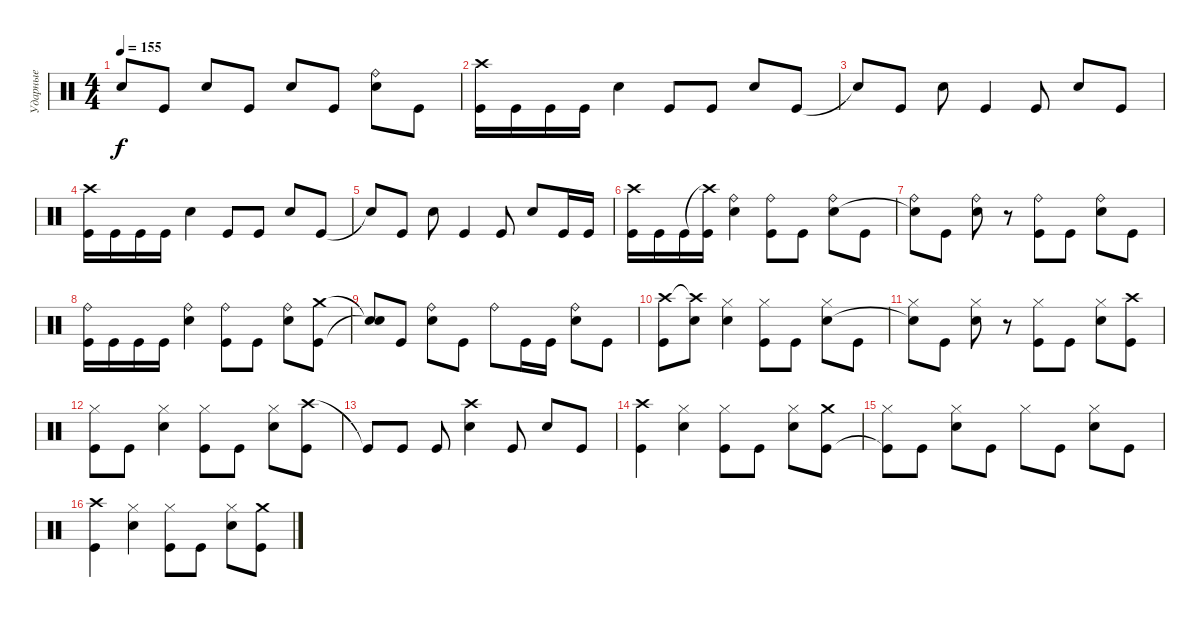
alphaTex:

\track ("Ударные" "Ударные") {instrument percussion}
\staff {score}
\articulation defaults
\ts (4 4)
\tempo 155
\clef neutral
\ks c "Snare (hit)"{t}.8{dy f} "Kick (hit)".8 "Electric Snare (hit)".8 "Kick (hit)".8 "Electric Snare (hit)".8 "Kick (hit)".8
("Ride (bell)" "Electric Snare (hit)").8 "Kick (hit)".8 |
("Crash high (hit)" "Kick (hit)").16 "Kick (hit)".16 "Kick (hit)".16 "Kick (hit)".16 "Electric Snare (hit)".4 "Kick (hit)".8 "Kick (hit)".8 "Electric Snare (hit)".8 "Kick (hit)".8 |
"Snare (hit)"{t}.8 "Kick (hit)".8 "Electric Snare (hit)".8 "Kick (hit)".4 "Kick (hit)".8 "Electric Snare (hit)".8 "Kick (hit)".8 |
("Crash high (hit)" "Kick (hit)").16 "Kick (hit)".16 "Kick (hit)".16 "Kick (hit)".16 "Electric Snare (hit)".4 "Kick (hit)".8 "Kick (hit)".8 "Electric Snare (hit)".8 "Kick (hit)".8 |
"Snare (hit)"{t}.8 "Kick (hit)".8 "Electric Snare (hit)".8 "Kick (hit)".4 "Kick (hit)".8 "Electric Snare (hit)".8 "Kick (hit)".16 "Kick (hit)".16 |
("Crash high (hit)" "Kick (hit)").16 "Kick (hit)".16 "Kick (hit)".16 ("Crash high (hit)"{t} "Kick (hit)").16 ("Ride (bell)" "Electric Snare (hit)").4 ("Ride (bell)" "Kick (hit)").8 "Kick (hit)".8 ("Ride (bell)" "Electric Snare (hit)").8 "Kick (hit)".8 |
("Ride (bell)" "Snare (hit)"{t}).8 "Kick (hit)".8 ("Ride (bell)" "Electric Snare (hit)").8 r.8 ("Ride (bell)" "Kick (hit)").8 "Kick (hit)".8 ("Ride (bell)" "Electric Snare (hit)").8 "Kick (hit)".8 |
("Ride (bell)" "Kick (hit)").16 "Kick (hit)".16 "Kick (hit)".16 "Kick (hit)".16 ("Ride (bell)" "Electric Snare (hit)").4 ("Ride (bell)" "Kick (hit)").8 "Kick (hit)".8 ("Ride (bell)" "Electric Snare (hit)").8 ("Crash medium (hit)" "Kick (hit)").8 |
("Snare (hit)"{t} "Snare (hit)"{t}).8 "Kick (hit)".8 ("Ride (bell)" "Electric Snare (hit)").8 "Kick (hit)".8 "Ride (bell)".8 "Kick (hit)".16 "Kick (hit)".16 ("Ride (bell)" "Electric Snare (hit)").8 "Kick (hit)".8 |
("Crash high (hit)" "Kick (hit)").8 ("Crash high (hit)"{t} "Snare (hit)").8 ("Hi-Hat (closed)" "Electric Snare (hit)").4 ("Hi-Hat (closed)" "Kick (hit)").8 "Kick (hit)".8 ("Hi-Hat (closed)" "Electric Snare (hit)").8 "Kick (hit)".8 |
("Hi-Hat (closed)" "Snare (hit)"{t}).8 "Kick (hit)".8 ("Hi-Hat (closed)" "Electric Snare (hit)").8 r.8 ("Hi-Hat (closed)" "Kick (hit)").8 "Kick (hit)".8 ("Hi-Hat (closed)" "Electric Snare (hit)").8 ("Crash high (hit)" "Kick (hit)").8 |
("Hi-Hat (closed)" "Kick (hit)").8 "Kick (hit)".8 ("Hi-Hat (closed)" "Electric Snare (hit)").4 ("Hi-Hat (closed)" "Kick (hit)").8 "Kick (hit)".8 ("Hi-Hat (closed)" "Electric Snare (hit)").8 ("Crash high (hit)" "Kick (hit)").8 |
"Kick (hit)"{t}.8 "Kick (hit)".8 "Kick (hit)".8 ("Crash high (hit)" "Electric Snare (hit)").4 "Kick (hit)".8 "Electric Snare (hit)".8 "Kick (hit)".8 |
("Crash high (hit)" "Kick (hit)").4 ("Hi-Hat (closed)" "Electric Snare (hit)").4 ("Hi-Hat (closed)" "Kick (hit)").8 "Kick (hit)".8 ("Hi-Hat (closed)" "Electric Snare (hit)").8 ("Crash medium (hit)" "Kick (hit)").8 |
("Hi-Hat (closed)" "Kick (hit)"{t}).8 "Kick (hit)".8 ("Hi-Hat (closed)" "Electric Snare (hit)").8 "Kick (hit)".8 "Hi-Hat (closed)".8 "Kick (hit)".8 ("Hi-Hat (closed)" "Electric Snare (hit)").8 "Kick (hit)".8 |
("Crash high (hit)" "Kick (hit)").4 ("Hi-Hat (closed)" "Electric Snare (hit)").4 ("Hi-Hat (closed)" "Kick (hit)").8 "Kick (hit)".8 ("Hi-Hat (closed)" "Electric Snare (hit)").8 ("Crash medium (hit)" "Kick (hit)").8
